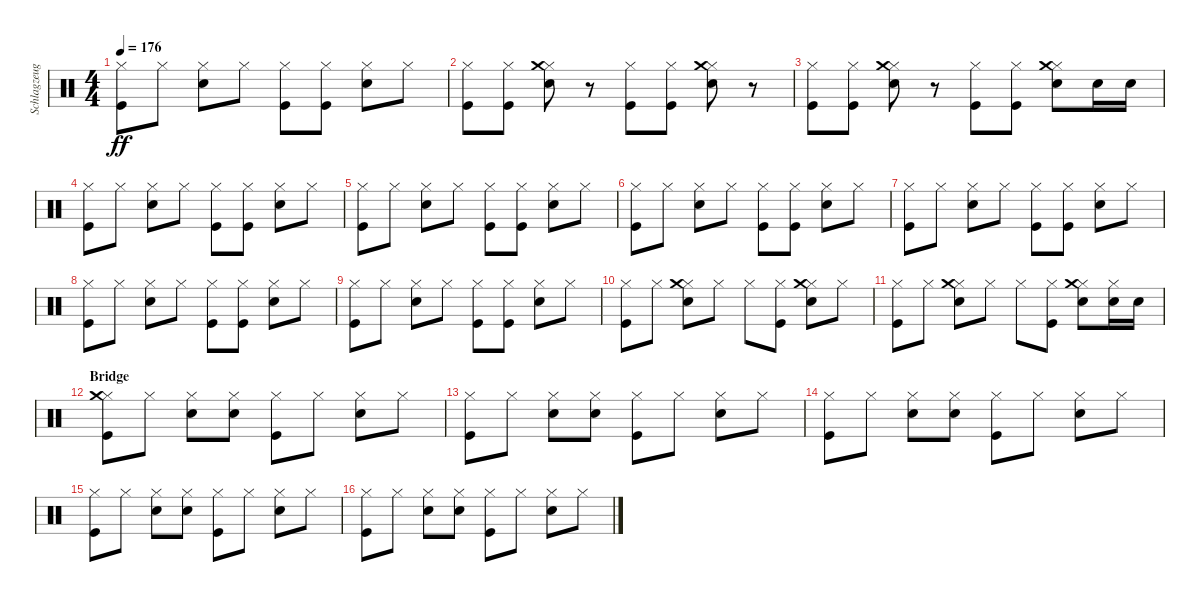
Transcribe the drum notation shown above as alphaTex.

\track ("Schlagzeug - Bela B." "Schlagzeug") {instrument percussion}
\staff {score}
\articulation defaults
\ts (4 4)
\tempo 176
\clef neutral
\ks c
("Kick (hit)" "Hi-Hat (closed)").8{dy ff} "Hi-Hat (closed)".8 ("Hi-Hat (closed)" "Electric Snare (hit)").8 "Hi-Hat (closed)".8 ("Hi-Hat (closed)" "Kick (hit)").8 ("Hi-Hat (closed)" "Kick (hit)").8 ("Hi-Hat (closed)" "Electric Snare (hit)").8 "Hi-Hat (closed)".8 |
("Kick (hit)" "Hi-Hat (closed)").8 ("Hi-Hat (closed)" "Kick (hit)").8 ("Hi-Hat (closed)" "Electric Snare (hit)" "Crash medium (hit)").8 r.8 ("Hi-Hat (closed)" "Kick (hit)").8 ("Hi-Hat (closed)" "Kick (hit)").8 ("Hi-Hat (closed)" "Electric Snare (hit)" "Crash medium (hit)").8 r.8 |
("Kick (hit)" "Hi-Hat (closed)").8 ("Hi-Hat (closed)" "Kick (hit)").8 ("Hi-Hat (closed)" "Electric Snare (hit)" "Crash medium (hit)").8 r.8 ("Hi-Hat (closed)" "Kick (hit)").8 ("Hi-Hat (closed)" "Kick (hit)").8 ("Hi-Hat (closed)" "Electric Snare (hit)" "Crash medium (hit)").8 "Electric Snare (hit)".16 "Electric Snare (hit)".16 |
("Kick (hit)" "Hi-Hat (closed)").8 "Hi-Hat (closed)".8 ("Hi-Hat (closed)" "Electric Snare (hit)").8 "Hi-Hat (closed)".8 ("Hi-Hat (closed)" "Kick (hit)").8 ("Hi-Hat (closed)" "Kick (hit)").8 ("Hi-Hat (closed)" "Electric Snare (hit)").8 "Hi-Hat (closed)".8 |
("Kick (hit)" "Hi-Hat (closed)").8 "Hi-Hat (closed)".8 ("Hi-Hat (closed)" "Electric Snare (hit)").8 "Hi-Hat (closed)".8 ("Hi-Hat (closed)" "Kick (hit)").8 ("Hi-Hat (closed)" "Kick (hit)").8 ("Hi-Hat (closed)" "Electric Snare (hit)").8 "Hi-Hat (closed)".8 |
("Kick (hit)" "Hi-Hat (closed)").8 "Hi-Hat (closed)".8 ("Hi-Hat (closed)" "Electric Snare (hit)").8 "Hi-Hat (closed)".8 ("Hi-Hat (closed)" "Kick (hit)").8 ("Hi-Hat (closed)" "Kick (hit)").8 ("Hi-Hat (closed)" "Electric Snare (hit)").8 "Hi-Hat (closed)".8 |
("Kick (hit)" "Hi-Hat (closed)").8 "Hi-Hat (closed)".8 ("Hi-Hat (closed)" "Electric Snare (hit)").8 "Hi-Hat (closed)".8 ("Hi-Hat (closed)" "Kick (hit)").8 ("Hi-Hat (closed)" "Kick (hit)").8 ("Hi-Hat (closed)" "Electric Snare (hit)").8 "Hi-Hat (closed)".8 |
("Kick (hit)" "Hi-Hat (closed)").8 "Hi-Hat (closed)".8 ("Hi-Hat (closed)" "Electric Snare (hit)").8 "Hi-Hat (closed)".8 ("Hi-Hat (closed)" "Kick (hit)").8 ("Hi-Hat (closed)" "Kick (hit)").8 ("Hi-Hat (closed)" "Electric Snare (hit)").8 "Hi-Hat (closed)".8 |
("Kick (hit)" "Hi-Hat (closed)").8 "Hi-Hat (closed)".8 ("Hi-Hat (closed)" "Electric Snare (hit)").8 "Hi-Hat (closed)".8 ("Hi-Hat (closed)" "Kick (hit)").8 ("Hi-Hat (closed)" "Kick (hit)").8 ("Hi-Hat (closed)" "Electric Snare (hit)").8 "Hi-Hat (closed)".8 |
("Kick (hit)" "Hi-Hat (closed)").8 "Hi-Hat (closed)".8 ("Hi-Hat (closed)" "Electric Snare (hit)" "Crash medium (hit)").8 "Hi-Hat (closed)".8 "Hi-Hat (closed)".8 ("Hi-Hat (closed)" "Kick (hit)").8 ("Hi-Hat (closed)" "Electric Snare (hit)" "Crash medium (hit)").8 "Hi-Hat (closed)".8 |
("Kick (hit)" "Hi-Hat (closed)").8 "Hi-Hat (closed)".8 ("Hi-Hat (closed)" "Electric Snare (hit)" "Crash medium (hit)").8 "Hi-Hat (closed)".8 "Hi-Hat (closed)".8 ("Hi-Hat (closed)" "Kick (hit)").8 ("Hi-Hat (closed)" "Electric Snare (hit)" "Crash medium (hit)").8 ("Hi-Hat (closed)" "Electric Snare (hit)").16 "Electric Snare (hit)".16 |
\section ("" "Bridge")
("Kick (hit)" "Hi-Hat (closed)" "Crash medium (hit)").8 "Hi-Hat (closed)".8 ("Electric Snare (hit)" "Hi-Hat (closed)").8 ("Hi-Hat (closed)" "Electric Snare (hit)").8 ("Hi-Hat (closed)" "Kick (hit)").8 "Hi-Hat (closed)".8 ("Hi-Hat (closed)" "Electric Snare (hit)").8 "Hi-Hat (closed)".8 |
("Kick (hit)" "Hi-Hat (closed)").8 "Hi-Hat (closed)".8 ("Electric Snare (hit)" "Hi-Hat (closed)").8 ("Hi-Hat (closed)" "Electric Snare (hit)").8 ("Hi-Hat (closed)" "Kick (hit)").8 "Hi-Hat (closed)".8 ("Hi-Hat (closed)" "Electric Snare (hit)").8 "Hi-Hat (closed)".8 |
("Kick (hit)" "Hi-Hat (closed)").8 "Hi-Hat (closed)".8 ("Electric Snare (hit)" "Hi-Hat (closed)").8 ("Hi-Hat (closed)" "Electric Snare (hit)").8 ("Hi-Hat (closed)" "Kick (hit)").8 "Hi-Hat (closed)".8 ("Hi-Hat (closed)" "Electric Snare (hit)").8 "Hi-Hat (closed)".8 |
("Kick (hit)" "Hi-Hat (closed)").8 "Hi-Hat (closed)".8 ("Electric Snare (hit)" "Hi-Hat (closed)").8 ("Hi-Hat (closed)" "Electric Snare (hit)").8 ("Hi-Hat (closed)" "Kick (hit)").8 "Hi-Hat (closed)".8 ("Hi-Hat (closed)" "Electric Snare (hit)").8 "Hi-Hat (closed)".8 |
("Kick (hit)" "Hi-Hat (closed)").8 "Hi-Hat (closed)".8 ("Electric Snare (hit)" "Hi-Hat (closed)").8 ("Hi-Hat (closed)" "Electric Snare (hit)").8 ("Hi-Hat (closed)" "Kick (hit)").8 "Hi-Hat (closed)".8 ("Hi-Hat (closed)" "Electric Snare (hit)").8 "Hi-Hat (closed)".8
